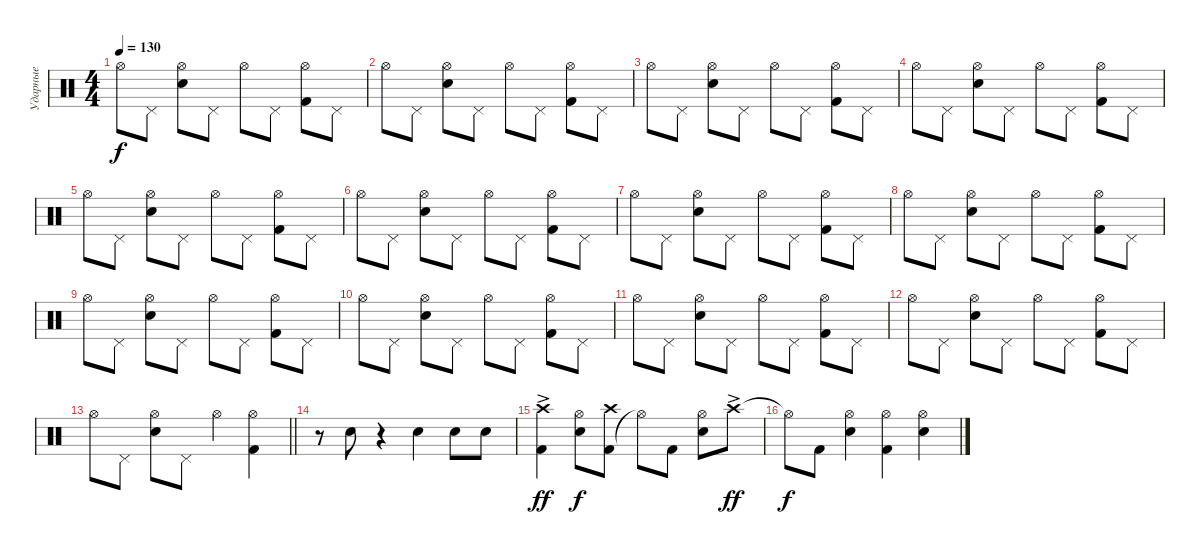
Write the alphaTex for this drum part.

\track ("Ударные" "Ударные") {instrument percussion}
\staff
\articulation defaults
\ts (4 4)
\tempo 130
\clef neutral
\ks c "Hi-Hat (open)".8{dy f} "Pedal Hi-Hat (hit)".8
("Snare (hit) 2" "Hi-Hat (open)").8 "Pedal Hi-Hat (hit)".8 "Hi-Hat (open)".8 "Pedal Hi-Hat (hit)".8 ("Kick (hit) 2" "Hi-Hat (open)").8 "Pedal Hi-Hat (hit)".8 |
"Hi-Hat (open)".8 "Pedal Hi-Hat (hit)".8 ("Snare (hit) 2" "Hi-Hat (open)").8 "Pedal Hi-Hat (hit)".8 "Hi-Hat (open)".8 "Pedal Hi-Hat (hit)".8 ("Kick (hit) 2" "Hi-Hat (open)").8 "Pedal Hi-Hat (hit)".8 |
"Hi-Hat (open)".8 "Pedal Hi-Hat (hit)".8 ("Snare (hit) 2" "Hi-Hat (open)").8 "Pedal Hi-Hat (hit)".8 "Hi-Hat (open)".8 "Pedal Hi-Hat (hit)".8 ("Kick (hit) 2" "Hi-Hat (open)").8 "Pedal Hi-Hat (hit)".8 |
"Hi-Hat (open)".8 "Pedal Hi-Hat (hit)".8 ("Snare (hit) 2" "Hi-Hat (open)").8 "Pedal Hi-Hat (hit)".8 "Hi-Hat (open)".8 "Pedal Hi-Hat (hit)".8 ("Kick (hit) 2" "Hi-Hat (open)").8 "Pedal Hi-Hat (hit)".8 |
"Hi-Hat (open)".8 "Pedal Hi-Hat (hit)".8 ("Snare (hit) 2" "Hi-Hat (open)").8 "Pedal Hi-Hat (hit)".8 "Hi-Hat (open)".8 "Pedal Hi-Hat (hit)".8 ("Kick (hit) 2" "Hi-Hat (open)").8 "Pedal Hi-Hat (hit)".8 |
"Hi-Hat (open)".8 "Pedal Hi-Hat (hit)".8 ("Snare (hit) 2" "Hi-Hat (open)").8 "Pedal Hi-Hat (hit)".8 "Hi-Hat (open)".8 "Pedal Hi-Hat (hit)".8 ("Kick (hit) 2" "Hi-Hat (open)").8 "Pedal Hi-Hat (hit)".8 |
"Hi-Hat (open)".8 "Pedal Hi-Hat (hit)".8 ("Snare (hit) 2" "Hi-Hat (open)").8 "Pedal Hi-Hat (hit)".8 "Hi-Hat (open)".8 "Pedal Hi-Hat (hit)".8 ("Kick (hit) 2" "Hi-Hat (open)").8 "Pedal Hi-Hat (hit)".8 |
"Hi-Hat (open)".8 "Pedal Hi-Hat (hit)".8 ("Snare (hit) 2" "Hi-Hat (open)").8 "Pedal Hi-Hat (hit)".8 "Hi-Hat (open)".8 "Pedal Hi-Hat (hit)".8 ("Kick (hit) 2" "Hi-Hat (open)").8 "Pedal Hi-Hat (hit)".8 |
"Hi-Hat (open)".8 "Pedal Hi-Hat (hit)".8 ("Snare (hit) 2" "Hi-Hat (open)").8 "Pedal Hi-Hat (hit)".8 "Hi-Hat (open)".8 "Pedal Hi-Hat (hit)".8 ("Kick (hit) 2" "Hi-Hat (open)").8 "Pedal Hi-Hat (hit)".8 |
"Hi-Hat (open)".8 "Pedal Hi-Hat (hit)".8 ("Snare (hit) 2" "Hi-Hat (open)").8 "Pedal Hi-Hat (hit)".8 "Hi-Hat (open)".8 "Pedal Hi-Hat (hit)".8 ("Kick (hit) 2" "Hi-Hat (open)").8 "Pedal Hi-Hat (hit)".8 |
"Hi-Hat (open)".8 "Pedal Hi-Hat (hit)".8 ("Snare (hit) 2" "Hi-Hat (open)").8 "Pedal Hi-Hat (hit)".8 "Hi-Hat (open)".8 "Pedal Hi-Hat (hit)".8 ("Kick (hit) 2" "Hi-Hat (open)").8 "Pedal Hi-Hat (hit)".8 |
"Hi-Hat (open)".8 "Pedal Hi-Hat (hit)".8 ("Snare (hit) 2" "Hi-Hat (open)").8 "Pedal Hi-Hat (hit)".8 "Hi-Hat (open)".8 "Pedal Hi-Hat (hit)".8 ("Kick (hit) 2" "Hi-Hat (open)").8 "Pedal Hi-Hat (hit)".8 |
\barLineRight lightlight "Hi-Hat (open)".8 "Pedal Hi-Hat (hit)".8
("Snare (hit) 2" "Hi-Hat (open)").8 "Pedal Hi-Hat (hit)".8 "Hi-Hat (open)".4 ("Kick (hit) 2" "Hi-Hat (open)").4 |
r.8 "Snare (hit) 2".8 r.4 "Snare (hit) 2".4 "Snare (hit) 2".8 "Snare (hit) 2".8 |
("Kick (hit) 2" "Crash high (hit)"{ac}).4{dy ff} ("Snare (hit) 2" "Hi-Hat (open)").8{dy f} ("Kick (hit) 2" "Crash high (hit)").8 "Hi-Hat (open)"{t}.8 "Kick (hit) 2".8 ("Snare (hit) 2" "Hi-Hat (open)").8 "Crash high (hit)"{ac}.8{dy ff} |
"Hi-Hat (open)"{t}.8{dy f} "Kick (hit) 2".8 ("Snare (hit) 2" "Hi-Hat (open)").4 ("Kick (hit) 2" "Hi-Hat (open)").4 ("Snare (hit) 2" "Hi-Hat (open)").4
